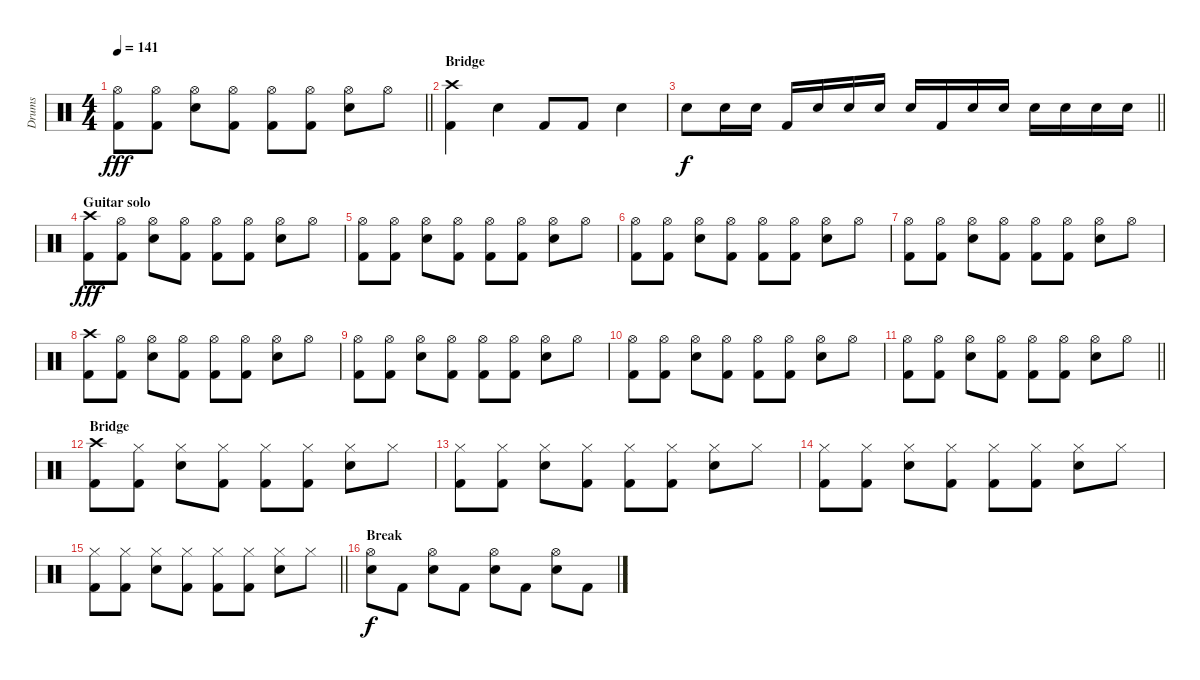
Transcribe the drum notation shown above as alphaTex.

\track ("Drums" "Drums") {instrument percussion}
\staff {score}
\articulation defaults
\ts (4 4)
\tempo 141
\clef neutral
\barLineRight lightlight
\ks c
("Hi-Hat (open)" "Kick (hit) 2").8{dy fff} ("Hi-Hat (open)" "Kick (hit) 2").8 ("Hi-Hat (open)" "Electric Snare (hit)").8 ("Hi-Hat (open)" "Kick (hit) 2").8 ("Hi-Hat (open)" "Kick (hit) 2").8 ("Hi-Hat (open)" "Kick (hit) 2").8 ("Hi-Hat (open)" "Electric Snare (hit)").8 "Hi-Hat (open)".8 |
\section ("" "Bridge")
("Crash high (hit)" "Kick (hit) 2").4 "Electric Snare (hit)".4 "Kick (hit) 2".8 "Kick (hit) 2".8 "Electric Snare (hit)".4 |
\barLineRight lightlight "Electric Snare (hit)".8{dy f} "Electric Snare (hit)".16 "Electric Snare (hit)".16 "Kick (hit) 2".16 "Electric Snare (hit)".16 "Electric Snare (hit)".16 "Electric Snare (hit)".16 "Electric Snare (hit)".16 "Kick (hit) 2".16 "Electric Snare (hit)".16 "Electric Snare (hit)".16 "Electric Snare (hit)".16 "Electric Snare (hit)".16 "Electric Snare (hit)".16 "Electric Snare (hit)".16
|
\section ("" "Guitar solo")
("Crash high (hit)" "Kick (hit) 2").8{dy fff} ("Hi-Hat (open)" "Kick (hit) 2").8 ("Hi-Hat (open)" "Electric Snare (hit)").8 ("Hi-Hat (open)" "Kick (hit) 2").8 ("Hi-Hat (open)" "Kick (hit) 2").8 ("Hi-Hat (open)" "Kick (hit) 2").8 ("Hi-Hat (open)" "Electric Snare (hit)").8 "Hi-Hat (open)".8 |
("Hi-Hat (open)" "Kick (hit) 2").8 ("Hi-Hat (open)" "Kick (hit) 2").8 ("Hi-Hat (open)" "Electric Snare (hit)").8 ("Hi-Hat (open)" "Kick (hit) 2").8 ("Hi-Hat (open)" "Kick (hit) 2").8 ("Hi-Hat (open)" "Kick (hit) 2").8 ("Hi-Hat (open)" "Electric Snare (hit)").8 "Hi-Hat (open)".8 |
("Hi-Hat (open)" "Kick (hit) 2").8 ("Hi-Hat (open)" "Kick (hit) 2").8 ("Hi-Hat (open)" "Electric Snare (hit)").8 ("Hi-Hat (open)" "Kick (hit) 2").8 ("Hi-Hat (open)" "Kick (hit) 2").8 ("Hi-Hat (open)" "Kick (hit) 2").8 ("Hi-Hat (open)" "Electric Snare (hit)").8 "Hi-Hat (open)".8 |
("Hi-Hat (open)" "Kick (hit) 2").8 ("Hi-Hat (open)" "Kick (hit) 2").8 ("Hi-Hat (open)" "Electric Snare (hit)").8 ("Hi-Hat (open)" "Kick (hit) 2").8 ("Hi-Hat (open)" "Kick (hit) 2").8 ("Hi-Hat (open)" "Kick (hit) 2").8 ("Hi-Hat (open)" "Electric Snare (hit)").8 "Hi-Hat (open)".8 |
("Crash high (hit)" "Kick (hit) 2").8 ("Hi-Hat (open)" "Kick (hit) 2").8 ("Hi-Hat (open)" "Electric Snare (hit)").8 ("Hi-Hat (open)" "Kick (hit) 2").8 ("Hi-Hat (open)" "Kick (hit) 2").8 ("Hi-Hat (open)" "Kick (hit) 2").8 ("Hi-Hat (open)" "Electric Snare (hit)").8 "Hi-Hat (open)".8 |
("Hi-Hat (open)" "Kick (hit) 2").8 ("Hi-Hat (open)" "Kick (hit) 2").8 ("Hi-Hat (open)" "Electric Snare (hit)").8 ("Hi-Hat (open)" "Kick (hit) 2").8 ("Hi-Hat (open)" "Kick (hit) 2").8 ("Hi-Hat (open)" "Kick (hit) 2").8 ("Hi-Hat (open)" "Electric Snare (hit)").8 "Hi-Hat (open)".8 |
("Hi-Hat (open)" "Kick (hit) 2").8 ("Hi-Hat (open)" "Kick (hit) 2").8 ("Hi-Hat (open)" "Electric Snare (hit)").8 ("Hi-Hat (open)" "Kick (hit) 2").8 ("Hi-Hat (open)" "Kick (hit) 2").8 ("Hi-Hat (open)" "Kick (hit) 2").8 ("Hi-Hat (open)" "Electric Snare (hit)").8 "Hi-Hat (open)".8 |
\barLineRight lightlight
("Hi-Hat (open)" "Kick (hit) 2").8 ("Hi-Hat (open)" "Kick (hit) 2").8 ("Hi-Hat (open)" "Electric Snare (hit)").8 ("Hi-Hat (open)" "Kick (hit) 2").8 ("Hi-Hat (open)" "Kick (hit) 2").8 ("Hi-Hat (open)" "Kick (hit) 2").8 ("Hi-Hat (open)" "Electric Snare (hit)").8 "Hi-Hat (open)".8 |
\section ("" "Bridge")
("Crash high (hit)" "Kick (hit) 2").8 ("Hi-Hat (closed)" "Kick (hit) 2").8 ("Hi-Hat (closed)" "Electric Snare (hit)").8 ("Hi-Hat (closed)" "Kick (hit) 2").8 ("Hi-Hat (closed)" "Kick (hit) 2").8 ("Hi-Hat (closed)" "Kick (hit) 2").8 ("Hi-Hat (closed)" "Electric Snare (hit)").8 "Hi-Hat (closed)".8 |
("Hi-Hat (closed)" "Kick (hit) 2").8 ("Hi-Hat (closed)" "Kick (hit) 2").8 ("Hi-Hat (closed)" "Electric Snare (hit)").8 ("Hi-Hat (closed)" "Kick (hit) 2").8 ("Hi-Hat (closed)" "Kick (hit) 2").8 ("Hi-Hat (closed)" "Kick (hit) 2").8 ("Hi-Hat (closed)" "Electric Snare (hit)").8 "Hi-Hat (closed)".8 |
("Hi-Hat (closed)" "Kick (hit) 2").8 ("Hi-Hat (closed)" "Kick (hit) 2").8 ("Hi-Hat (closed)" "Electric Snare (hit)").8 ("Hi-Hat (closed)" "Kick (hit) 2").8 ("Hi-Hat (closed)" "Kick (hit) 2").8 ("Hi-Hat (closed)" "Kick (hit) 2").8 ("Hi-Hat (closed)" "Electric Snare (hit)").8 "Hi-Hat (closed)".8 |
\barLineRight lightlight
("Hi-Hat (closed)" "Kick (hit) 2").8 ("Hi-Hat (closed)" "Kick (hit) 2").8 ("Hi-Hat (closed)" "Electric Snare (hit)").8 ("Hi-Hat (closed)" "Kick (hit) 2").8 ("Hi-Hat (closed)" "Kick (hit) 2").8 ("Hi-Hat (closed)" "Kick (hit) 2").8 ("Hi-Hat (closed)" "Electric Snare (hit)").8 "Hi-Hat (closed)".8 |
\section ("" "Break")
("Hi-Hat (open)" "Electric Snare (hit)").8{dy f} "Kick (hit) 2".8 ("Hi-Hat (open)" "Electric Snare (hit)").8 "Kick (hit) 2".8 ("Hi-Hat (open)" "Electric Snare (hit)").8 "Kick (hit) 2".8 ("Hi-Hat (open)" "Electric Snare (hit)").8 "Kick (hit) 2".8
